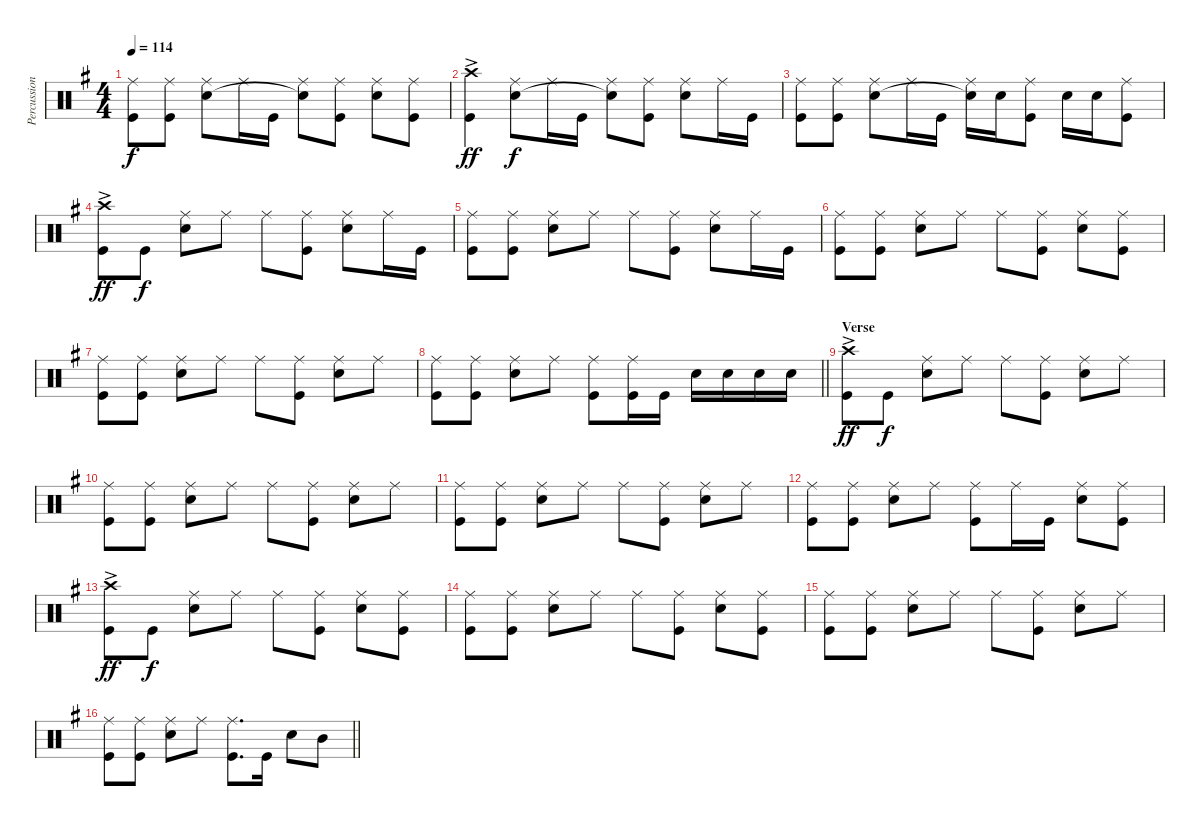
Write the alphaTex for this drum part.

\track ("Percussion" "Percussion") {instrument percussion}
\staff {score}
\articulation defaults
\ts (4 4)
\tempo 114
\clef neutral
\ks g
("Ride (middle)" "Kick (hit)").8{dy f} ("Ride (middle)" "Kick (hit)").8 ("Ride (middle)" "Snare (hit) 2").8 "Ride (middle)".16 "Kick (hit)".16 ("Ride (middle)" "Snare (hit)"{t}).8 ("Ride (middle)" "Kick (hit)").8 ("Ride (middle)" "Snare (hit) 2").8 ("Ride (middle)" "Kick (hit)").8 |
("Crash high (hit)"{ac} "Kick (hit)").4{dy ff} ("Ride (middle)" "Snare (hit) 2").8{dy f} "Ride (middle)".16 "Kick (hit)".16 ("Ride (middle)" "Snare (hit)"{t}).8 ("Ride (middle)" "Kick (hit)").8 ("Ride (middle)" "Snare (hit) 2").8 "Ride (middle)".16 "Kick (hit)".16 |
("Ride (middle)" "Kick (hit)").8 ("Ride (middle)" "Kick (hit)").8 ("Ride (middle)" "Snare (hit) 2").8 "Ride (middle)".16 "Kick (hit)".16 ("Ride (middle)" "Snare (hit)"{t}).16 "Snare (hit) 2".16 ("Ride (middle)" "Kick (hit)").8 "Snare (hit) 2".16 "Snare (hit) 2".16 ("Ride (middle)" "Kick (hit)").8 |
("Crash high (hit)"{ac} "Kick (hit)").8{dy ff} "Kick (hit)".8{dy f} ("Ride (middle)" "Snare (hit) 2").8 "Ride (middle)".8 "Ride (middle)".8 ("Ride (middle)" "Kick (hit)").8 ("Ride (middle)" "Snare (hit) 2").8 "Ride (middle)".16 "Kick (hit)".16 |
("Ride (middle)" "Kick (hit)").8 ("Ride (middle)" "Kick (hit)").8 ("Ride (middle)" "Snare (hit) 2").8 "Ride (middle)".8 "Ride (middle)".8 ("Ride (middle)" "Kick (hit)").8 ("Ride (middle)" "Snare (hit) 2").8 "Ride (middle)".16 "Kick (hit)".16 |
("Ride (middle)" "Kick (hit)").8 ("Ride (middle)" "Kick (hit)").8 ("Ride (middle)" "Snare (hit) 2").8 "Ride (middle)".8 "Ride (middle)".8 ("Ride (middle)" "Kick (hit)").8 ("Ride (middle)" "Snare (hit) 2").8 ("Ride (middle)" "Kick (hit)").8 |
("Ride (middle)" "Kick (hit)").8 ("Ride (middle)" "Kick (hit)").8 ("Ride (middle)" "Snare (hit) 2").8 "Ride (middle)".8 "Ride (middle)".8 ("Ride (middle)" "Kick (hit)").8 ("Ride (middle)" "Snare (hit) 2").8 "Ride (middle)".8 |
\barLineRight lightlight
("Ride (middle)" "Kick (hit)").8 ("Ride (middle)" "Kick (hit)").8 ("Ride (middle)" "Snare (hit) 2").8 "Ride (middle)".8 ("Ride (middle)" "Kick (hit)").8 ("Ride (middle)" "Kick (hit)").16 "Kick (hit)".16 "Snare (hit) 2".16 "Snare (hit) 2".16 "Snare (hit) 2".16 "Snare (hit) 2".16 |
\section ("" "Verse")
("Crash high (hit)"{ac} "Kick (hit)").8{dy ff} "Kick (hit)".8{dy f} ("Ride (middle)" "Snare (hit) 2").8 "Ride (middle)".8 "Ride (middle)".8 ("Ride (middle)" "Kick (hit)").8 ("Ride (middle)" "Snare (hit) 2").8 "Ride (middle)".8 |
("Ride (middle)" "Kick (hit)").8 ("Ride (middle)" "Kick (hit)").8 ("Ride (middle)" "Snare (hit) 2").8 "Ride (middle)".8 "Ride (middle)".8 ("Ride (middle)" "Kick (hit)").8 ("Ride (middle)" "Snare (hit) 2").8 "Ride (middle)".8 |
("Ride (middle)" "Kick (hit)").8 ("Ride (middle)" "Kick (hit)").8 ("Ride (middle)" "Snare (hit) 2").8 "Ride (middle)".8 "Ride (middle)".8 ("Ride (middle)" "Kick (hit)").8 ("Ride (middle)" "Snare (hit) 2").8 "Ride (middle)".8 |
("Ride (middle)" "Kick (hit)").8 ("Ride (middle)" "Kick (hit)").8 ("Ride (middle)" "Snare (hit) 2").8 "Ride (middle)".8 ("Ride (middle)" "Kick (hit)").8 "Ride (middle)".16 "Kick (hit)".16 ("Ride (middle)" "Snare (hit) 2").8 ("Ride (middle)" "Kick (hit)").8 |
("Crash high (hit)"{ac} "Kick (hit)").8{dy ff} "Kick (hit)".8{dy f} ("Ride (middle)" "Snare (hit) 2").8 "Ride (middle)".8 "Ride (middle)".8 ("Ride (middle)" "Kick (hit)").8 ("Ride (middle)" "Snare (hit) 2").8 ("Ride (middle)" "Kick (hit)").8 |
("Ride (middle)" "Kick (hit)").8 ("Ride (middle)" "Kick (hit)").8 ("Ride (middle)" "Snare (hit) 2").8 "Ride (middle)".8 "Ride (middle)".8 ("Ride (middle)" "Kick (hit)").8 ("Ride (middle)" "Snare (hit) 2").8 ("Ride (middle)" "Kick (hit)").8 |
("Ride (middle)" "Kick (hit)").8 ("Ride (middle)" "Kick (hit)").8 ("Ride (middle)" "Snare (hit) 2").8 "Ride (middle)".8 "Ride (middle)".8 ("Ride (middle)" "Kick (hit)").8 ("Ride (middle)" "Snare (hit) 2").8 "Ride (middle)".8 |
\barLineRight lightlight
("Ride (middle)" "Kick (hit)").8 ("Ride (middle)" "Kick (hit)").8 ("Ride (middle)" "Snare (hit) 2").8 "Ride (middle)".8 ("Ride (middle)" "Kick (hit)").8{d} "Kick (hit)".16 "Snare (hit) 2".8 "Mid Tom (hit)".8
